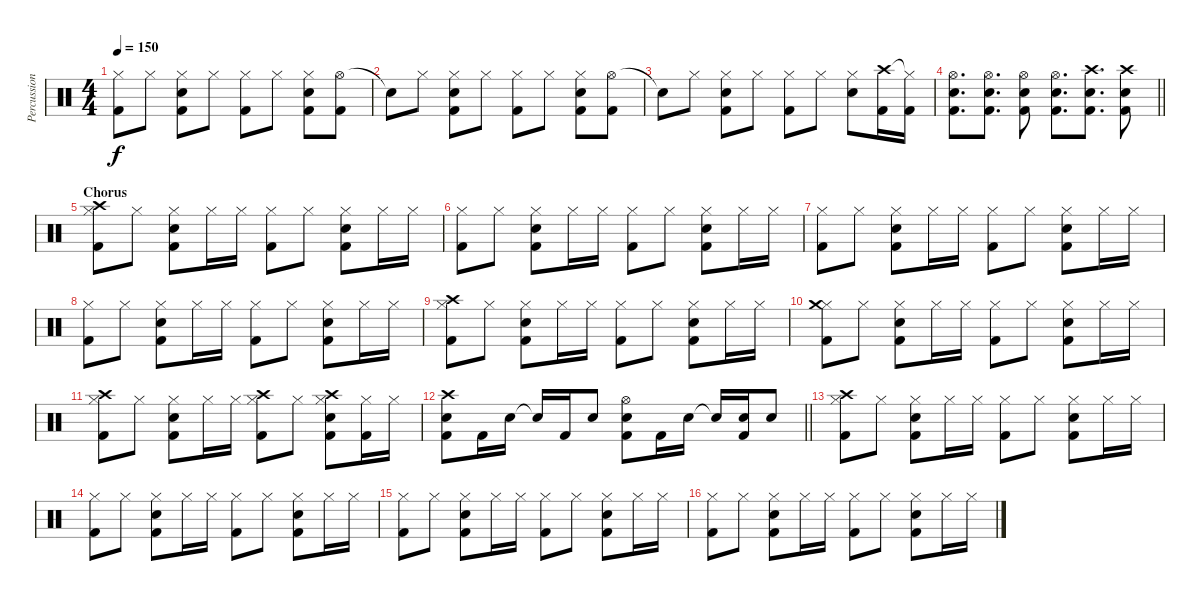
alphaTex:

\track ("Percussion" "Percussion") {instrument percussion}
\staff {score}
\articulation defaults
\ts (4 4)
\tempo 150
\clef neutral
\ks c
("Hi-Hat (closed)" "Kick (hit) 2").8{dy f} "Hi-Hat (closed)".8 ("Hi-Hat (closed)" "Snare (hit) 2" "Kick (hit) 2").8 "Hi-Hat (closed)".8 ("Hi-Hat (closed)" "Kick (hit) 2").8 "Hi-Hat (closed)".8 ("Hi-Hat (closed)" "Snare (hit) 2" "Kick (hit) 2").8 ("Hi-Hat (open)" "Kick (hit) 2").8 |
"Snare (hit)"{t}.8 "Hi-Hat (closed)".8 ("Hi-Hat (closed)" "Snare (hit) 2" "Kick (hit) 2").8 "Hi-Hat (closed)".8 ("Hi-Hat (closed)" "Kick (hit) 2").8 "Hi-Hat (closed)".8 ("Hi-Hat (closed)" "Snare (hit) 2" "Kick (hit) 2").8 ("Hi-Hat (open)" "Kick (hit) 2").8 |
"Snare (hit)"{t}.8 "Hi-Hat (closed)".8 ("Hi-Hat (closed)" "Snare (hit) 2" "Kick (hit) 2").8 "Hi-Hat (closed)".8 ("Hi-Hat (closed)" "Kick (hit) 2").8 "Hi-Hat (closed)".8 ("Hi-Hat (closed)" "Snare (hit) 2").8 ("Crash high (hit)" "Kick (hit) 2").16 ("Hi-Hat (closed)"{t} "Kick (hit) 2").16 |
\barLineRight lightlight
("Hi-Hat (open)" "Snare (hit) 2" "Kick (hit) 2").8{d} ("Hi-Hat (open)" "Snare (hit) 2" "Kick (hit) 2").8{d} ("Hi-Hat (open)" "Snare (hit) 2" "Kick (hit) 2").8 ("Hi-Hat (open)" "Snare (hit) 2" "Kick (hit) 2").8{d} ("Crash high (hit)" "Snare (hit) 2" "Kick (hit) 2").8{d} ("Crash high (hit)" "Snare (hit) 2" "Kick (hit) 2").8 |
\section ("" "Chorus")
("Hi-Hat (closed)" "Crash high (hit)" "Kick (hit) 2").8 "Hi-Hat (closed)".8 ("Hi-Hat (closed)" "Snare (hit) 2" "Kick (hit) 2").8 "Hi-Hat (closed)".16 "Hi-Hat (closed)".16 ("Hi-Hat (closed)" "Kick (hit) 2").8 "Hi-Hat (closed)".8 ("Hi-Hat (closed)" "Snare (hit) 2" "Kick (hit) 2").8 "Hi-Hat (closed)".16 "Hi-Hat (closed)".16 |
("Hi-Hat (closed)" "Kick (hit) 2").8 "Hi-Hat (closed)".8 ("Hi-Hat (closed)" "Snare (hit) 2" "Kick (hit) 2").8 "Hi-Hat (closed)".16 "Hi-Hat (closed)".16 ("Hi-Hat (closed)" "Kick (hit) 2").8 "Hi-Hat (closed)".8 ("Hi-Hat (closed)" "Snare (hit) 2" "Kick (hit) 2").8 "Hi-Hat (closed)".16 "Hi-Hat (closed)".16 |
("Hi-Hat (closed)" "Kick (hit) 2").8 "Hi-Hat (closed)".8 ("Hi-Hat (closed)" "Snare (hit) 2" "Kick (hit) 2").8 "Hi-Hat (closed)".16 "Hi-Hat (closed)".16 ("Hi-Hat (closed)" "Kick (hit) 2").8 "Hi-Hat (closed)".8 ("Hi-Hat (closed)" "Snare (hit) 2" "Kick (hit) 2").8 "Hi-Hat (closed)".16 "Hi-Hat (closed)".16 |
("Hi-Hat (closed)" "Kick (hit) 2").8 "Hi-Hat (closed)".8 ("Hi-Hat (closed)" "Snare (hit) 2" "Kick (hit) 2").8 "Hi-Hat (closed)".16 "Hi-Hat (closed)".16 ("Hi-Hat (closed)" "Kick (hit) 2").8 "Hi-Hat (closed)".8 ("Hi-Hat (closed)" "Snare (hit) 2" "Kick (hit) 2").8 "Hi-Hat (closed)".16 "Hi-Hat (closed)".16 |
("Hi-Hat (closed)" "Crash high (hit)" "Kick (hit) 2").8 "Hi-Hat (closed)".8 ("Hi-Hat (closed)" "Snare (hit) 2" "Kick (hit) 2").8 "Hi-Hat (closed)".16 "Hi-Hat (closed)".16 ("Hi-Hat (closed)" "Kick (hit) 2").8 "Hi-Hat (closed)".8 ("Hi-Hat (closed)" "Snare (hit) 2" "Kick (hit) 2").8 "Hi-Hat (closed)".16 "Hi-Hat (closed)".16 |
("Hi-Hat (closed)" "Crash medium (hit)" "Kick (hit) 2").8 "Hi-Hat (closed)".8 ("Hi-Hat (closed)" "Snare (hit) 2" "Kick (hit) 2").8 "Hi-Hat (closed)".16 "Hi-Hat (closed)".16 ("Hi-Hat (closed)" "Kick (hit) 2").8 "Hi-Hat (closed)".8 ("Hi-Hat (closed)" "Snare (hit) 2" "Kick (hit) 2").8 "Hi-Hat (closed)".16 "Hi-Hat (closed)".16 |
("Hi-Hat (closed)" "Crash high (hit)" "Kick (hit) 2").8 "Hi-Hat (closed)".8 ("Hi-Hat (closed)" "Snare (hit) 2" "Kick (hit) 2").8 "Hi-Hat (closed)".16 "Hi-Hat (closed)".16 ("Hi-Hat (closed)" "Crash high (hit)" "Kick (hit) 2").8 "Hi-Hat (closed)".8 ("Hi-Hat (closed)" "Snare (hit) 2" "Crash high (hit)" "Kick (hit) 2").8 ("Hi-Hat (closed)" "Kick (hit) 2").16 "Hi-Hat (closed)".16 |
\barLineRight lightlight
("Crash high (hit)" "Snare (hit) 2" "Kick (hit) 2").8 "Kick (hit) 2".16 "Snare (hit) 2".16 "Snare (hit)"{t}.16 "Kick (hit) 2".16 "Snare (hit) 2".8 ("Hi-Hat (open)" "Snare (hit) 2" "Kick (hit) 2").8 "Kick (hit) 2".16 "Snare (hit) 2".16 "Snare (hit) 2"{t}.16 ("Snare (hit) 2" "Kick (hit) 2").16 "Snare (hit) 2".8 |
("Hi-Hat (closed)" "Crash high (hit)" "Kick (hit) 2").8 "Hi-Hat (closed)".8 ("Hi-Hat (closed)" "Snare (hit) 2" "Kick (hit) 2").8 "Hi-Hat (closed)".16 "Hi-Hat (closed)".16 ("Hi-Hat (closed)" "Kick (hit) 2").8 "Hi-Hat (closed)".8 ("Hi-Hat (closed)" "Snare (hit) 2" "Kick (hit) 2").8 "Hi-Hat (closed)".16 "Hi-Hat (closed)".16 |
("Hi-Hat (closed)" "Kick (hit) 2").8 "Hi-Hat (closed)".8 ("Hi-Hat (closed)" "Snare (hit) 2" "Kick (hit) 2").8 "Hi-Hat (closed)".16 "Hi-Hat (closed)".16 ("Hi-Hat (closed)" "Kick (hit) 2").8 "Hi-Hat (closed)".8 ("Hi-Hat (closed)" "Snare (hit) 2" "Kick (hit) 2").8 "Hi-Hat (closed)".16 "Hi-Hat (closed)".16 |
("Hi-Hat (closed)" "Kick (hit) 2").8 "Hi-Hat (closed)".8 ("Hi-Hat (closed)" "Snare (hit) 2" "Kick (hit) 2").8 "Hi-Hat (closed)".16 "Hi-Hat (closed)".16 ("Hi-Hat (closed)" "Kick (hit) 2").8 "Hi-Hat (closed)".8 ("Hi-Hat (closed)" "Snare (hit) 2" "Kick (hit) 2").8 "Hi-Hat (closed)".16 "Hi-Hat (closed)".16 |
("Hi-Hat (closed)" "Kick (hit) 2").8 "Hi-Hat (closed)".8 ("Hi-Hat (closed)" "Snare (hit) 2" "Kick (hit) 2").8 "Hi-Hat (closed)".16 "Hi-Hat (closed)".16 ("Hi-Hat (closed)" "Kick (hit) 2").8 "Hi-Hat (closed)".8 ("Hi-Hat (closed)" "Snare (hit) 2" "Kick (hit) 2").8 "Hi-Hat (closed)".16 "Hi-Hat (closed)".16
